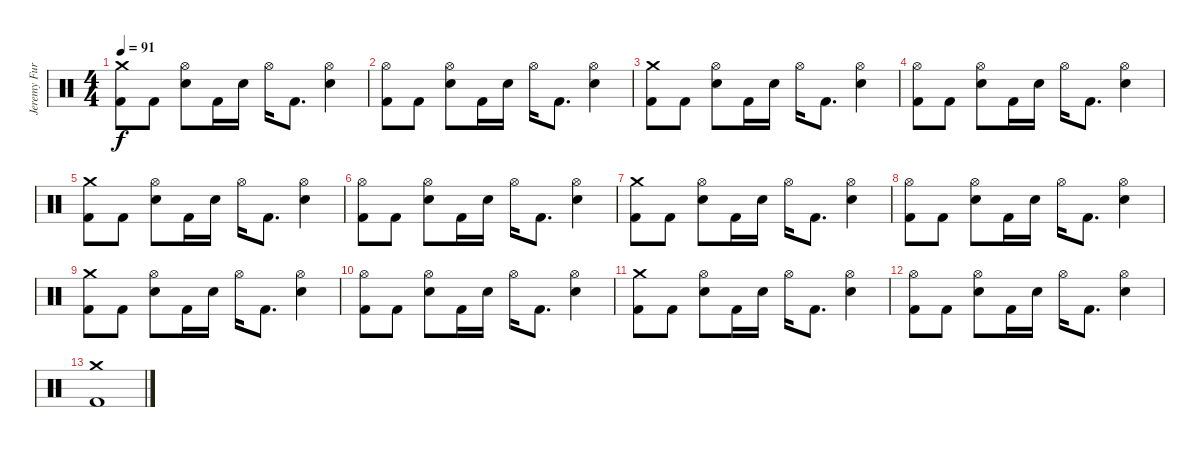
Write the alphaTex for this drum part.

\track ("Jeremy Furstenfeld - drums" "Jeremy Fur") {instrument percussion}
\staff {score}
\articulation defaults
\ts (4 4)
\tempo 91
\clef neutral
\ks c
("Crash medium (hit)" "Kick (hit) 2").8{dy f} "Kick (hit) 2".8 ("Hi-Hat (open)" "Electric Snare (hit)").8 "Kick (hit) 2".16 "Electric Snare (hit)".16 "Hi-Hat (open)".16 "Kick (hit) 2".8{d} ("Hi-Hat (open)" "Electric Snare (hit)").4 |
("Hi-Hat (open)" "Kick (hit) 2").8 "Kick (hit) 2".8 ("Hi-Hat (open)" "Electric Snare (hit)").8 "Kick (hit) 2".16 "Electric Snare (hit)".16 "Hi-Hat (open)".16 "Kick (hit) 2".8{d} ("Hi-Hat (open)" "Electric Snare (hit)").4 |
("Crash medium (hit)" "Kick (hit) 2").8 "Kick (hit) 2".8 ("Hi-Hat (open)" "Electric Snare (hit)").8 "Kick (hit) 2".16 "Electric Snare (hit)".16 "Hi-Hat (open)".16 "Kick (hit) 2".8{d} ("Hi-Hat (open)" "Electric Snare (hit)").4 |
("Hi-Hat (open)" "Kick (hit) 2").8 "Kick (hit) 2".8 ("Hi-Hat (open)" "Electric Snare (hit)").8 "Kick (hit) 2".16 "Electric Snare (hit)".16 "Hi-Hat (open)".16 "Kick (hit) 2".8{d} ("Hi-Hat (open)" "Electric Snare (hit)").4 |
("Crash medium (hit)" "Kick (hit) 2").8 "Kick (hit) 2".8 ("Hi-Hat (open)" "Electric Snare (hit)").8 "Kick (hit) 2".16 "Electric Snare (hit)".16 "Hi-Hat (open)".16 "Kick (hit) 2".8{d} ("Hi-Hat (open)" "Electric Snare (hit)").4 |
("Hi-Hat (open)" "Kick (hit) 2").8 "Kick (hit) 2".8 ("Hi-Hat (open)" "Electric Snare (hit)").8 "Kick (hit) 2".16 "Electric Snare (hit)".16 "Hi-Hat (open)".16 "Kick (hit) 2".8{d} ("Hi-Hat (open)" "Electric Snare (hit)").4 |
("Crash medium (hit)" "Kick (hit) 2").8 "Kick (hit) 2".8 ("Hi-Hat (open)" "Electric Snare (hit)").8 "Kick (hit) 2".16 "Electric Snare (hit)".16 "Hi-Hat (open)".16 "Kick (hit) 2".8{d} ("Hi-Hat (open)" "Electric Snare (hit)").4 |
("Hi-Hat (open)" "Kick (hit) 2").8 "Kick (hit) 2".8 ("Hi-Hat (open)" "Electric Snare (hit)").8 "Kick (hit) 2".16 "Electric Snare (hit)".16 "Hi-Hat (open)".16 "Kick (hit) 2".8{d} ("Hi-Hat (open)" "Electric Snare (hit)").4 |
("Crash medium (hit)" "Kick (hit) 2").8 "Kick (hit) 2".8 ("Hi-Hat (open)" "Electric Snare (hit)").8 "Kick (hit) 2".16 "Electric Snare (hit)".16 "Hi-Hat (open)".16 "Kick (hit) 2".8{d} ("Hi-Hat (open)" "Electric Snare (hit)").4 |
("Hi-Hat (open)" "Kick (hit) 2").8 "Kick (hit) 2".8 ("Hi-Hat (open)" "Electric Snare (hit)").8 "Kick (hit) 2".16 "Electric Snare (hit)".16 "Hi-Hat (open)".16 "Kick (hit) 2".8{d} ("Hi-Hat (open)" "Electric Snare (hit)").4 |
("Crash medium (hit)" "Kick (hit) 2").8 "Kick (hit) 2".8 ("Hi-Hat (open)" "Electric Snare (hit)").8 "Kick (hit) 2".16 "Electric Snare (hit)".16 "Hi-Hat (open)".16 "Kick (hit) 2".8{d} ("Hi-Hat (open)" "Electric Snare (hit)").4 |
("Hi-Hat (open)" "Kick (hit) 2").8 "Kick (hit) 2".8 ("Hi-Hat (open)" "Electric Snare (hit)").8 "Kick (hit) 2".16 "Electric Snare (hit)".16 "Hi-Hat (open)".16 "Kick (hit) 2".8{d} ("Hi-Hat (open)" "Electric Snare (hit)").4 |
("Crash medium (hit)" "Kick (hit) 2").1
